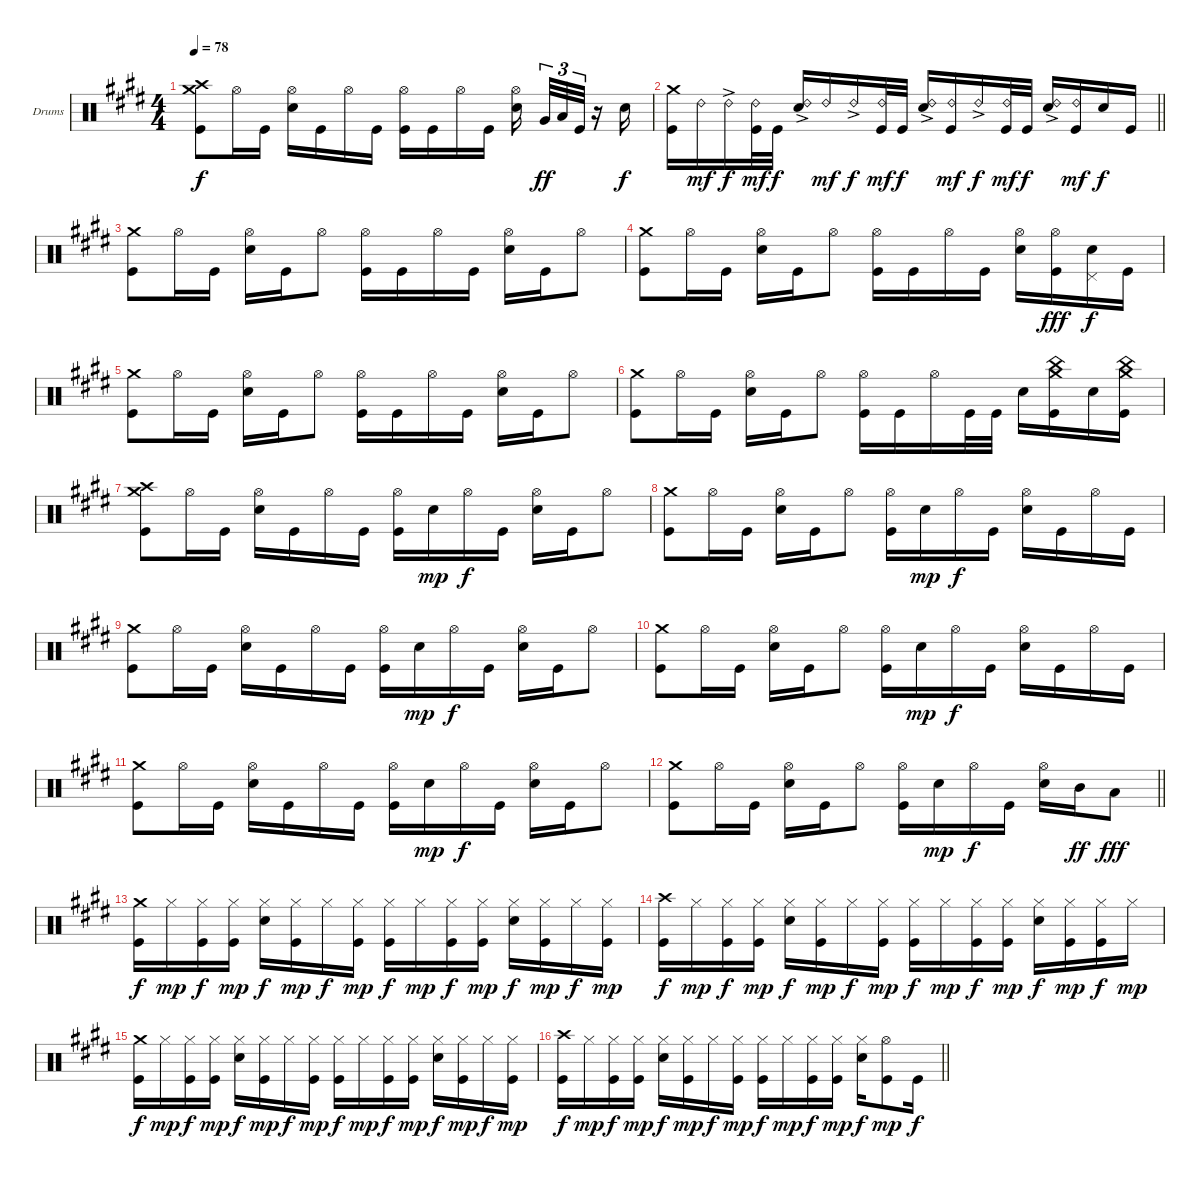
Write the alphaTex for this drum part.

\bracketExtendMode groupsimilarinstruments
\firstSystemTrackNameOrientation horizontal
\otherSystemsTrackNameOrientation horizontal
\track ("Drumkit" "Drums") {instrument percussion}
\staff {score}
\articulation defaults
\ts (4 4)
\tempo 78
\clef neutral
\ks c#minor
("Crash medium (hit)" "Crash high (hit)" "Kick (hit)").8{dy f} "Hi-Hat (open)".16 "Kick (hit)".16 ("Hi-Hat (open)" "Snare (hit) 2").16 "Kick (hit)".16 "Hi-Hat (open)".16 "Kick (hit)".16 ("Hi-Hat (open)" "Kick (hit)").16 "Kick (hit)".16 "Hi-Hat (open)".16 "Kick (hit)".16 ("Hi-Hat (open)" "Snare (hit) 2").16 "Very Low Tom (hit)".32{tu (3 2) dy ff} "Low Tom (hit)".32{tu (3 2)} "Kick (hit)".32{tu (3 2)} r.16 "Snare (hit) 2".16{dy f} |
\barLineRight lightlight
("Crash medium (hit)" "Kick (hit)").16 "Ride (bell) 2".16{dy mf} "Ride (bell) 2"{ac}.16{dy f} ("Ride (bell) 2" "Kick (hit)").32{dy mf} "Kick (hit)".32{dy f} ("Ride (bell) 2"{ac} "Snare (hit) 2").16 "Ride (bell) 2".16{dy mf} "Ride (bell) 2"{ac}.16{dy f} ("Ride (bell) 2" "Kick (hit)").32{dy mf} "Kick (hit)".32{dy f} ("Ride (bell) 2"{ac} "Snare (hit) 2").16 ("Ride (bell) 2" "Kick (hit)").16{dy mf} "Ride (bell) 2"{ac}.16{dy f} ("Ride (bell) 2" "Kick (hit)").32{dy mf} "Kick (hit)".32{dy f} ("Ride (bell) 2"{ac} "Snare (hit) 2").16 ("Ride (bell) 2" "Kick (hit)").16{dy mf} "Snare (hit) 2".16{dy f} "Kick (hit)".16 |
("Crash medium (hit)" "Kick (hit)").8 "Hi-Hat (open)".16 "Kick (hit)".16 ("Hi-Hat (open)" "Snare (hit) 2").16 "Kick (hit)".16 "Hi-Hat (open)".8 ("Hi-Hat (open)" "Kick (hit)").16 "Kick (hit)".16 "Hi-Hat (open)".16 "Kick (hit)".16 ("Hi-Hat (open)" "Snare (hit) 2").16 "Kick (hit)".16 "Hi-Hat (open)".8 |
("Crash medium (hit)" "Kick (hit)").8 "Hi-Hat (open)".16 "Kick (hit)".16 ("Hi-Hat (open)" "Snare (hit) 2").16 "Kick (hit)".16 "Hi-Hat (open)".8 ("Hi-Hat (open)" "Kick (hit)").16 "Kick (hit)".16 "Hi-Hat (open)".16 "Kick (hit)".16 ("Hi-Hat (open)" "Snare (hit) 2").16 ("Hi-Hat (open)" "Kick (hit)").16{dy fff} ("Snare (hit) 2" "Pedal Hi-Hat (hit)").16{dy f} "Kick (hit)".16 |
("Crash medium (hit)" "Kick (hit)").8 "Hi-Hat (open)".16 "Kick (hit)".16 ("Hi-Hat (open)" "Snare (hit) 2").16 "Kick (hit)".16 "Hi-Hat (open)".8 ("Hi-Hat (open)" "Kick (hit)").16 "Kick (hit)".16 "Hi-Hat (open)".16 "Kick (hit)".16 ("Hi-Hat (open)" "Snare (hit) 2").16 "Kick (hit)".16 "Hi-Hat (open)".8 |
("Crash medium (hit)" "Kick (hit)").8 "Hi-Hat (open)".16 "Kick (hit)".16 ("Hi-Hat (open)" "Snare (hit) 2").16 "Kick (hit)".16 "Hi-Hat (open)".8 ("Hi-Hat (open)" "Kick (hit)").16 "Kick (hit)".16 "Hi-Hat (open)".16 "Kick (hit)".32 "Kick (hit)".32 "Snare (hit) 2".16 ("China (hit)" "Crash medium (hit)" "Kick (hit)").16 "Snare (hit) 2".16 ("China (hit)" "Crash medium (hit)" "Kick (hit)").16 |
("Crash medium (hit)" "Crash high (hit)" "Kick (hit)").8 "Hi-Hat (open)".16 "Kick (hit)".16 ("Hi-Hat (open)" "Snare (hit) 2").16 "Kick (hit)".16 "Hi-Hat (open)".16 "Kick (hit)".16 ("Hi-Hat (open)" "Kick (hit)").16 "Snare (hit) 2".16{dy mp} "Hi-Hat (open)".16{dy f} "Kick (hit)".16 ("Hi-Hat (open)" "Snare (hit) 2").16 "Kick (hit)".16 "Hi-Hat (open)".8 |
("Crash medium (hit)" "Kick (hit)").8 "Hi-Hat (open)".16 "Kick (hit)".16 ("Hi-Hat (open)" "Snare (hit) 2").16 "Kick (hit)".16 "Hi-Hat (open)".8 ("Hi-Hat (open)" "Kick (hit)").16 "Snare (hit) 2".16{dy mp} "Hi-Hat (open)".16{dy f} "Kick (hit)".16 ("Hi-Hat (open)" "Snare (hit) 2").16 "Kick (hit)".16 "Hi-Hat (open)".16 "Kick (hit)".16 |
("Crash medium (hit)" "Kick (hit)").8 "Hi-Hat (open)".16 "Kick (hit)".16 ("Hi-Hat (open)" "Snare (hit) 2").16 "Kick (hit)".16 "Hi-Hat (open)".16 "Kick (hit)".16 ("Hi-Hat (open)" "Kick (hit)").16 "Snare (hit) 2".16{dy mp} "Hi-Hat (open)".16{dy f} "Kick (hit)".16 ("Hi-Hat (open)" "Snare (hit) 2").16 "Kick (hit)".16 "Hi-Hat (open)".8 |
("Crash medium (hit)" "Kick (hit)").8 "Hi-Hat (open)".16 "Kick (hit)".16 ("Hi-Hat (open)" "Snare (hit) 2").16 "Kick (hit)".16 "Hi-Hat (open)".8 ("Hi-Hat (open)" "Kick (hit)").16 "Snare (hit) 2".16{dy mp} "Hi-Hat (open)".16{dy f} "Kick (hit)".16 ("Hi-Hat (open)" "Snare (hit) 2").16 "Kick (hit)".16 "Hi-Hat (open)".16 "Kick (hit)".16 |
("Crash medium (hit)" "Kick (hit)").8 "Hi-Hat (open)".16 "Kick (hit)".16 ("Hi-Hat (open)" "Snare (hit) 2").16 "Kick (hit)".16 "Hi-Hat (open)".16 "Kick (hit)".16 ("Hi-Hat (open)" "Kick (hit)").16 "Snare (hit) 2".16{dy mp} "Hi-Hat (open)".16{dy f} "Kick (hit)".16 ("Hi-Hat (open)" "Snare (hit) 2").16 "Kick (hit)".16 "Hi-Hat (open)".8 |
\barLineRight lightlight
("Crash medium (hit)" "Kick (hit)").8 "Hi-Hat (open)".16 "Kick (hit)".16 ("Hi-Hat (open)" "Snare (hit) 2").16 "Kick (hit)".16 "Hi-Hat (open)".8 ("Hi-Hat (open)" "Kick (hit)").16 "Snare (hit) 2".16{dy mp} "Hi-Hat (open)".16{dy f} "Kick (hit)".16 ("Hi-Hat (open)" "Snare (hit) 2").16 "Mid Tom (hit)".16{dy ff} "Low Tom (hit)".8{dy fff} |
("Crash medium (hit)" "Kick (hit)").16{dy f} "Hi-Hat (closed)".16{dy mp} ("Hi-Hat (closed)" "Kick (hit)").16{dy f} ("Hi-Hat (closed)" "Kick (hit)").16{dy mp} ("Hi-Hat (closed)" "Snare (hit) 2").16{dy f} ("Hi-Hat (closed)" "Kick (hit)").16{dy mp} "Hi-Hat (closed)".16{dy f} ("Hi-Hat (closed)" "Kick (hit)").16{dy mp} ("Hi-Hat (closed)" "Kick (hit)").16{dy f} "Hi-Hat (closed)".16{dy mp} ("Hi-Hat (closed)" "Kick (hit)").16{dy f} ("Hi-Hat (closed)" "Kick (hit)").16{dy mp} ("Hi-Hat (closed)" "Snare (hit) 2").16{dy f} ("Hi-Hat (closed)" "Kick (hit)").16{dy mp} "Hi-Hat (closed)".16{dy f} ("Hi-Hat (closed)" "Kick (hit)").16{dy mp} |
("Crash high (hit)" "Kick (hit)").16{dy f} "Hi-Hat (closed)".16{dy mp} ("Hi-Hat (closed)" "Kick (hit)").16{dy f} ("Hi-Hat (closed)" "Kick (hit)").16{dy mp} ("Hi-Hat (closed)" "Snare (hit) 2").16{dy f} ("Hi-Hat (closed)" "Kick (hit)").16{dy mp} "Hi-Hat (closed)".16{dy f} ("Hi-Hat (closed)" "Kick (hit)").16{dy mp} ("Hi-Hat (closed)" "Kick (hit)").16{dy f} "Hi-Hat (closed)".16{dy mp} ("Hi-Hat (closed)" "Kick (hit)").16{dy f} ("Hi-Hat (closed)" "Kick (hit)").16{dy mp} ("Hi-Hat (closed)" "Snare (hit) 2").16{dy f} ("Hi-Hat (closed)" "Kick (hit)").16{dy mp} ("Hi-Hat (closed)" "Kick (hit)").16{dy f} "Hi-Hat (closed)".16{dy mp} |
("Crash medium (hit)" "Kick (hit)").16{dy f} "Hi-Hat (closed)".16{dy mp} ("Hi-Hat (closed)" "Kick (hit)").16{dy f} ("Hi-Hat (closed)" "Kick (hit)").16{dy mp} ("Hi-Hat (closed)" "Snare (hit) 2").16{dy f} ("Hi-Hat (closed)" "Kick (hit)").16{dy mp} "Hi-Hat (closed)".16{dy f} ("Hi-Hat (closed)" "Kick (hit)").16{dy mp} ("Hi-Hat (closed)" "Kick (hit)").16{dy f} "Hi-Hat (closed)".16{dy mp} ("Hi-Hat (closed)" "Kick (hit)").16{dy f} ("Hi-Hat (closed)" "Kick (hit)").16{dy mp} ("Hi-Hat (closed)" "Snare (hit) 2").16{dy f} ("Hi-Hat (closed)" "Kick (hit)").16{dy mp} "Hi-Hat (closed)".16{dy f} ("Hi-Hat (closed)" "Kick (hit)").16{dy mp} |
\barLineRight lightlight
("Crash high (hit)" "Kick (hit)").16{dy f} "Hi-Hat (closed)".16{dy mp} ("Hi-Hat (closed)" "Kick (hit)").16{dy f} ("Hi-Hat (closed)" "Kick (hit)").16{dy mp} ("Hi-Hat (closed)" "Snare (hit) 2").16{dy f} ("Hi-Hat (closed)" "Kick (hit)").16{dy mp} "Hi-Hat (closed)".16{dy f} ("Hi-Hat (closed)" "Kick (hit)").16{dy mp} ("Hi-Hat (closed)" "Kick (hit)").16{dy f} "Hi-Hat (closed)".16{dy mp} ("Hi-Hat (closed)" "Kick (hit)").16{dy f} ("Hi-Hat (closed)" "Kick (hit)").16{dy mp} ("Hi-Hat (closed)" "Snare (hit) 2").16{dy f} ("Hi-Hat (open)" "Kick (hit)").8{dy mp} "Kick (hit)".16{dy f}
